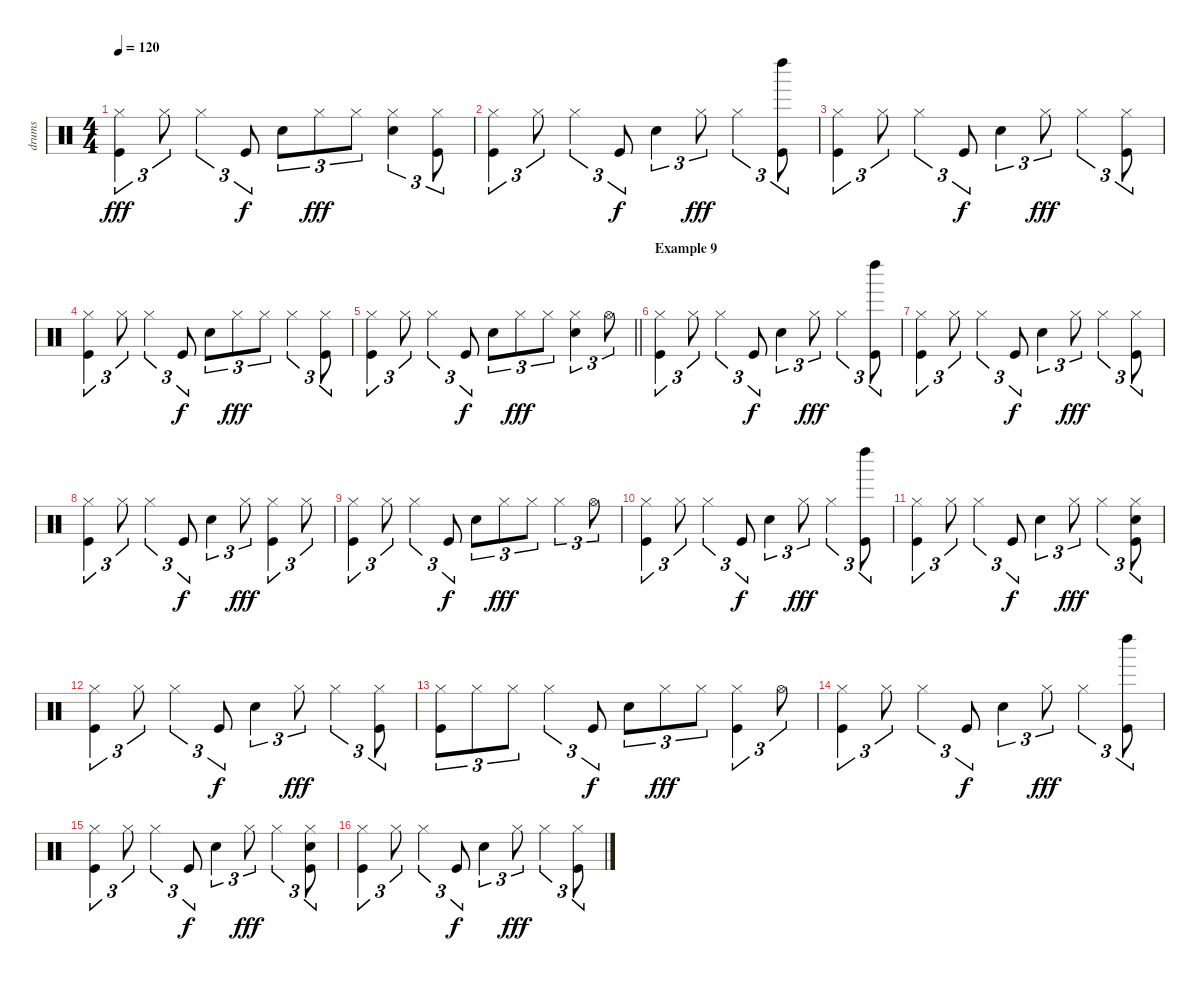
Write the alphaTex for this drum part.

\track ("drums" "drums") {instrument percussion}
\staff {score}
\articulation defaults
\ts (4 4)
\tempo 120
\clef neutral
\ks c
("Hi-Hat (closed)" "Kick (hit)").4{tu (3 2) dy fff} "Hi-Hat (closed)".8{tu (3 2)} "Hi-Hat (closed)".4{tu (3 2)} "Kick (hit)".8{tu (3 2) dy f} "Snare (hit) 2".8{tu (3 2)} "Hi-Hat (closed)".8{tu (3 2) dy fff} "Hi-Hat (closed)".8{tu (3 2)} ("Snare (hit) 2" "Hi-Hat (closed)").4{tu (3 2)} ("Hi-Hat (closed)" "Kick (hit)").8{tu (3 2)} |
("Hi-Hat (closed)" "Kick (hit)").4{tu (3 2)} "Hi-Hat (closed)".8{tu (3 2)} "Hi-Hat (closed)".4{tu (3 2)} "Kick (hit)".8{tu (3 2) dy f} "Snare (hit) 2".4{tu (3 2)} "Hi-Hat (closed)".8{tu (3 2) dy fff} "Hi-Hat (closed)".4{tu (3 2)} ("Left Maraca (hit)" "Kick (hit)").8{tu (3 2)} |
("Hi-Hat (closed)" "Kick (hit)").4{tu (3 2)} "Hi-Hat (closed)".8{tu (3 2)} "Hi-Hat (closed)".4{tu (3 2)} "Kick (hit)".8{tu (3 2) dy f} "Snare (hit) 2".4{tu (3 2)} "Hi-Hat (closed)".8{tu (3 2) dy fff} "Hi-Hat (closed)".4{tu (3 2)} ("Hi-Hat (closed)" "Kick (hit)").8{tu (3 2)} |
("Hi-Hat (closed)" "Kick (hit)").4{tu (3 2)} "Hi-Hat (closed)".8{tu (3 2)} "Hi-Hat (closed)".4{tu (3 2)} "Kick (hit)".8{tu (3 2) dy f} "Snare (hit) 2".8{tu (3 2)} "Hi-Hat (closed)".8{tu (3 2) dy fff} "Hi-Hat (closed)".8{tu (3 2)} "Hi-Hat (closed)".4{tu (3 2)} ("Hi-Hat (closed)" "Kick (hit)").8{tu (3 2)} |
\barLineRight lightlight
("Hi-Hat (closed)" "Kick (hit)").4{tu (3 2)} "Hi-Hat (closed)".8{tu (3 2)} "Hi-Hat (closed)".4{tu (3 2)} "Kick (hit)".8{tu (3 2) dy f} "Snare (hit) 2".8{tu (3 2)} "Hi-Hat (closed)".8{tu (3 2) dy fff} "Hi-Hat (closed)".8{tu (3 2)} ("Snare (hit) 2" "Hi-Hat (closed)").4{tu (3 2)} "Hi-Hat (open)".8{tu (3 2)} |
\section ("" "Example 9")
("Hi-Hat (closed)" "Kick (hit)").4{tu (3 2)} "Hi-Hat (closed)".8{tu (3 2)} "Hi-Hat (closed)".4{tu (3 2)} "Kick (hit)".8{tu (3 2) dy f} "Snare (hit) 2".4{tu (3 2)} "Hi-Hat (closed)".8{tu (3 2) dy fff} "Hi-Hat (closed)".4{tu (3 2)} ("Left Maraca (hit)" "Kick (hit)").8{tu (3 2)} |
("Hi-Hat (closed)" "Kick (hit)").4{tu (3 2)} "Hi-Hat (closed)".8{tu (3 2)} "Hi-Hat (closed)".4{tu (3 2)} "Kick (hit)".8{tu (3 2) dy f} "Snare (hit) 2".4{tu (3 2)} "Hi-Hat (closed)".8{tu (3 2) dy fff} "Hi-Hat (closed)".4{tu (3 2)} ("Hi-Hat (closed)" "Kick (hit)").8{tu (3 2)} |
("Hi-Hat (closed)" "Kick (hit)").4{tu (3 2)} "Hi-Hat (closed)".8{tu (3 2)} "Hi-Hat (closed)".4{tu (3 2)} "Kick (hit)".8{tu (3 2) dy f} "Snare (hit) 2".4{tu (3 2)} "Hi-Hat (closed)".8{tu (3 2) dy fff} ("Hi-Hat (closed)" "Kick (hit)").4{tu (3 2)} "Hi-Hat (closed)".8{tu (3 2)} |
("Hi-Hat (closed)" "Kick (hit)").4{tu (3 2)} "Hi-Hat (closed)".8{tu (3 2)} "Hi-Hat (closed)".4{tu (3 2)} "Kick (hit)".8{tu (3 2) dy f} "Snare (hit) 2".8{tu (3 2)} "Hi-Hat (closed)".8{tu (3 2) dy fff} "Hi-Hat (closed)".8{tu (3 2)} "Hi-Hat (closed)".4{tu (3 2)} "Hi-Hat (open)".8{tu (3 2)} |
("Hi-Hat (closed)" "Kick (hit)").4{tu (3 2)} "Hi-Hat (closed)".8{tu (3 2)} "Hi-Hat (closed)".4{tu (3 2)} "Kick (hit)".8{tu (3 2) dy f} "Snare (hit) 2".4{tu (3 2)} "Hi-Hat (closed)".8{tu (3 2) dy fff} "Hi-Hat (closed)".4{tu (3 2)} ("Left Maraca (hit)" "Kick (hit)").8{tu (3 2)} |
("Hi-Hat (closed)" "Kick (hit)").4{tu (3 2)} "Hi-Hat (closed)".8{tu (3 2)} "Hi-Hat (closed)".4{tu (3 2)} "Kick (hit)".8{tu (3 2) dy f} "Snare (hit) 2".4{tu (3 2)} "Hi-Hat (closed)".8{tu (3 2) dy fff} "Hi-Hat (closed)".4{tu (3 2)} ("Snare (hit) 2" "Hi-Hat (closed)" "Kick (hit)").8{tu (3 2)} |
("Hi-Hat (closed)" "Kick (hit)").4{tu (3 2)} "Hi-Hat (closed)".8{tu (3 2)} "Hi-Hat (closed)".4{tu (3 2)} "Kick (hit)".8{tu (3 2) dy f} "Snare (hit) 2".4{tu (3 2)} "Hi-Hat (closed)".8{tu (3 2) dy fff} "Hi-Hat (closed)".4{tu (3 2)} ("Hi-Hat (closed)" "Kick (hit)").8{tu (3 2)} |
("Hi-Hat (closed)" "Kick (hit)").8{tu (3 2)} "Hi-Hat (closed)".8{tu (3 2)} "Hi-Hat (closed)".8{tu (3 2)} "Hi-Hat (closed)".4{tu (3 2)} "Kick (hit)".8{tu (3 2) dy f} "Snare (hit) 2".8{tu (3 2)} "Hi-Hat (closed)".8{tu (3 2) dy fff} "Hi-Hat (closed)".8{tu (3 2)} ("Hi-Hat (closed)" "Kick (hit)").4{tu (3 2)} "Hi-Hat (open)".8{tu (3 2)} |
("Hi-Hat (closed)" "Kick (hit)").4{tu (3 2)} "Hi-Hat (closed)".8{tu (3 2)} "Hi-Hat (closed)".4{tu (3 2)} "Kick (hit)".8{tu (3 2) dy f} "Snare (hit) 2".4{tu (3 2)} "Hi-Hat (closed)".8{tu (3 2) dy fff} "Hi-Hat (closed)".4{tu (3 2)} ("Left Maraca (hit)" "Kick (hit)").8{tu (3 2)} |
("Hi-Hat (closed)" "Kick (hit)").4{tu (3 2)} "Hi-Hat (closed)".8{tu (3 2)} "Hi-Hat (closed)".4{tu (3 2)} "Kick (hit)".8{tu (3 2) dy f} "Snare (hit) 2".4{tu (3 2)} "Hi-Hat (closed)".8{tu (3 2) dy fff} "Hi-Hat (closed)".4{tu (3 2)} ("Snare (hit) 2" "Hi-Hat (closed)" "Kick (hit)").8{tu (3 2)} |
("Hi-Hat (closed)" "Kick (hit)").4{tu (3 2)} "Hi-Hat (closed)".8{tu (3 2)} "Hi-Hat (closed)".4{tu (3 2)} "Kick (hit)".8{tu (3 2) dy f} "Snare (hit) 2".4{tu (3 2)} "Hi-Hat (closed)".8{tu (3 2) dy fff} "Hi-Hat (closed)".4{tu (3 2)} ("Hi-Hat (closed)" "Kick (hit)").8{tu (3 2)}
